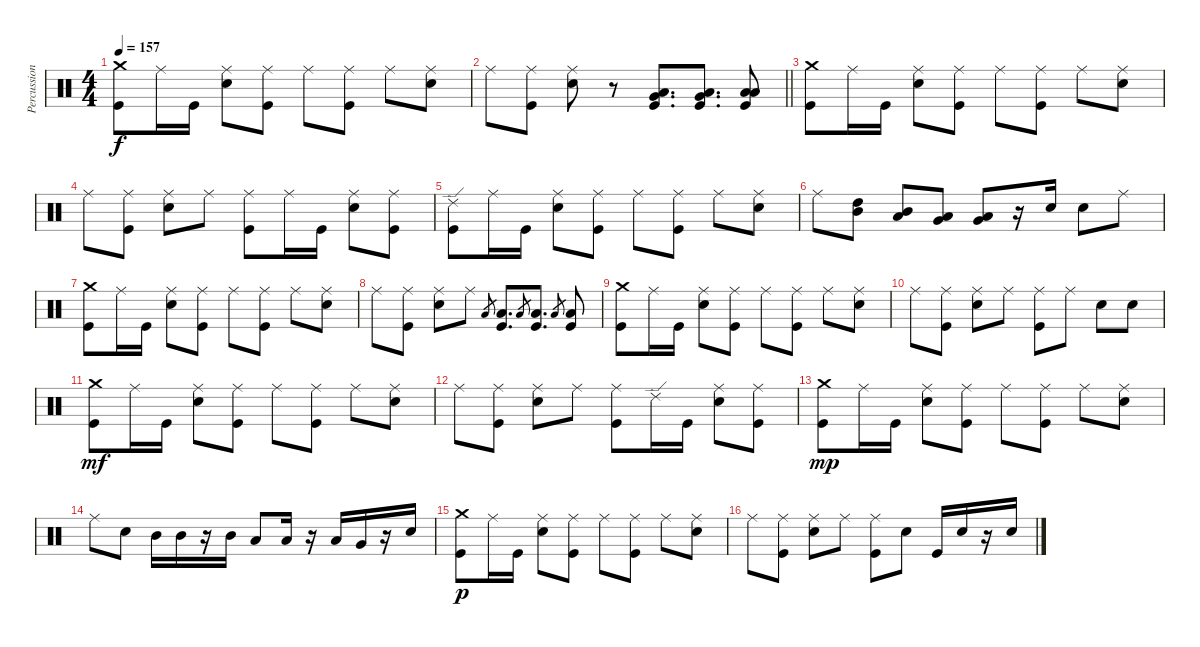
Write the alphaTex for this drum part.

\track ("Percussion" "Percussion") {instrument percussion}
\staff {score}
\articulation defaults
\ts (4 4)
\tempo 157
\clef neutral
\ks c
("Crash medium (hit)" "Kick (hit)").8{dy f} "Ride (middle)".16 "Kick (hit)".16 ("Ride (middle)" "Snare (hit) 2").8 ("Ride (middle)" "Kick (hit)").8 "Ride (middle)".8 ("Ride (middle)" "Kick (hit)").8 "Ride (middle)".8 ("Ride (middle)" "Snare (hit) 2").8 |
\barLineRight lightlight "Ride (middle)".8
("Ride (middle)" "Kick (hit)").8 ("Ride (middle)" "Snare (hit) 2").8 r.8 ("Low Tom (hit)" "Very Low Tom (hit)" "Kick (hit)").8{d} ("Low Tom (hit)" "Very Low Tom (hit)" "Kick (hit)").8{d} ("Low Tom (hit)" "Low Floor Tom (hit)" "Kick (hit)").8 |
("Crash medium (hit)" "Kick (hit)").8 "Ride (middle)".16 "Kick (hit)".16 ("Ride (middle)" "Snare (hit) 2").8 ("Ride (middle)" "Kick (hit)").8 "Ride (middle)".8 ("Ride (middle)" "Kick (hit)").8 "Ride (middle)".8 ("Ride (middle)" "Snare (hit) 2").8 |
"Ride (middle)".8 ("Ride (middle)" "Kick (hit)").8 ("Ride (middle)" "Snare (hit) 2").8 "Ride (middle)".8 ("Ride (middle)" "Kick (hit)").8 "Ride (middle)".16 "Kick (hit)".16 ("Ride (middle)" "Snare (hit) 2").8 ("Ride (middle)" "Kick (hit)").8 |
("Ride (edge) 2" "Kick (hit)").8 "Ride (middle)".16 "Kick (hit)".16 ("Ride (middle)" "Snare (hit) 2").8 ("Ride (middle)" "Kick (hit)").8 "Ride (middle)".8 ("Ride (middle)" "Kick (hit)").8 "Ride (middle)".8 ("Ride (middle)" "Snare (hit) 2").8 |
"Ride (middle)".8 ("High Tom (hit)" "Mid Tom (hit)").8 ("Mid Tom (hit)" "Low Tom (hit)").8 ("Low Tom (hit)" "Very Low Tom (hit)").8 ("Very Low Tom (hit)" "Low Floor Tom (hit)").8 r.16 "Snare (hit) 2".16 "Snare (hit) 2".8 "Ride (middle)".8 |
("Crash medium (hit)" "Kick (hit)").8 "Ride (middle)".16 "Kick (hit)".16 ("Ride (middle)" "Snare (hit) 2").8 ("Ride (middle)" "Kick (hit)").8 "Ride (middle)".8 ("Ride (middle)" "Kick (hit)").8 "Ride (middle)".8 ("Ride (middle)" "Snare (hit) 2").8 |
"Ride (middle)".8 ("Ride (middle)" "Kick (hit)").8 ("Ride (middle)" "Snare (hit) 2").8 "Ride (middle)".8 "Low Floor Tom (hit)".8{gr} ("Low Tom (hit)" "Kick (hit)").8{d} "Low Floor Tom (hit)".8{gr} ("Low Tom (hit)" "Kick (hit)").8{d} "Low Floor Tom (hit)".8{gr} ("Low Tom (hit)" "Kick (hit)").8 |
("Crash medium (hit)" "Kick (hit)").8 "Ride (middle)".16 "Kick (hit)".16 ("Ride (middle)" "Snare (hit) 2").8 ("Ride (middle)" "Kick (hit)").8 "Ride (middle)".8 ("Ride (middle)" "Kick (hit)").8 "Ride (middle)".8 ("Ride (middle)" "Snare (hit) 2").8 |
"Ride (middle)".8 ("Ride (middle)" "Kick (hit)").8 ("Ride (middle)" "Snare (hit) 2").8 "Ride (middle)".8 ("Ride (middle)" "Kick (hit)").8 "Ride (middle)".8 "Snare (hit) 2".8 "Snare (hit) 2".8 |
("Crash medium (hit)" "Kick (hit)").8{dy mf} "Ride (middle)".16 "Kick (hit)".16 ("Ride (middle)" "Snare (hit) 2").8 ("Ride (middle)" "Kick (hit)").8 "Ride (middle)".8 ("Ride (middle)" "Kick (hit)").8 "Ride (middle)".8 ("Ride (middle)" "Snare (hit) 2").8 |
"Ride (middle)".8 ("Ride (middle)" "Kick (hit)").8 ("Ride (middle)" "Snare (hit) 2").8 "Ride (middle)".8 ("Ride (middle)" "Kick (hit)").8 "Ride (edge) 2".16 "Kick (hit)".16 ("Ride (middle)" "Snare (hit) 2").8 ("Ride (middle)" "Kick (hit)").8 |
("Crash medium (hit)" "Kick (hit)").8{dy mp} "Ride (middle)".16 "Kick (hit)".16 ("Ride (middle)" "Snare (hit) 2").8 ("Ride (middle)" "Kick (hit)").8 "Ride (middle)".8 ("Ride (middle)" "Kick (hit)").8 "Ride (middle)".8 ("Ride (middle)" "Snare (hit) 2").8 |
"Ride (middle)".8 "Snare (hit) 2".8 "Mid Tom (hit)".16 "Mid Tom (hit)".16 r.16 "Mid Tom (hit)".16 "Low Tom (hit)".8 "Low Tom (hit)".16 r.16 "Low Tom (hit)".16 "Very Low Tom (hit)".16 r.16 "Snare (hit) 2".16 |
("Crash medium (hit)" "Kick (hit)").8{dy p} "Ride (middle)".16 "Kick (hit)".16 ("Ride (middle)" "Snare (hit) 2").8 ("Ride (middle)" "Kick (hit)").8 "Ride (middle)".8 ("Ride (middle)" "Kick (hit)").8 "Ride (middle)".8 ("Ride (middle)" "Snare (hit) 2").8 |
"Ride (middle)".8 ("Ride (middle)" "Kick (hit)").8 ("Ride (middle)" "Snare (hit) 2").8 "Ride (middle)".8 ("Ride (middle)" "Kick (hit)").8 "Snare (hit) 2".8 "Kick (hit)".16 "Snare (hit) 2".16 r.16 "Snare (hit) 2".16
